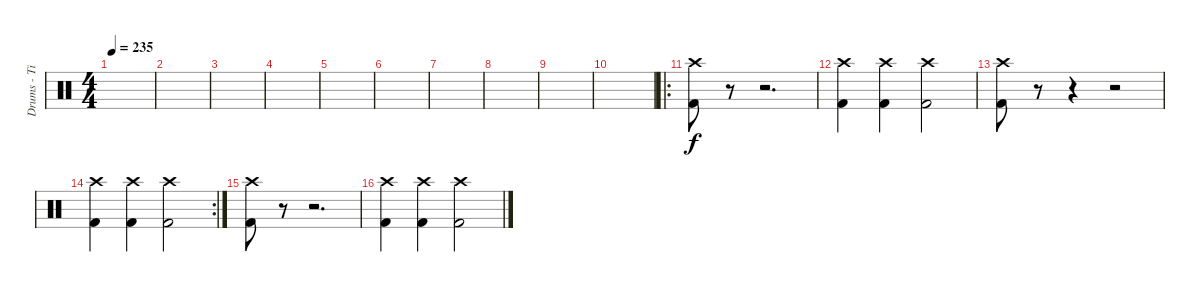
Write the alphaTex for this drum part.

\track ("Drums - Tim \"Herb\" Alexander" "Drums - Ti") {instrument percussion}
\staff {score}
\articulation defaults
\ts (4 4)
\tempo 235
\clef neutral
\ks c
|
|
|
|
|
|
|
|
|
|
\ro
("Crash high (hit)" "Kick (hit) 2").8 r.8 r.2{d} |
("Crash high (hit)" "Kick (hit) 2").4 ("Crash high (hit)" "Kick (hit) 2").4 ("Crash high (hit)" "Kick (hit) 2").2 |
("Crash high (hit)" "Kick (hit) 2").8 r.8 r.4 r.2 |
\rc 2
("Crash high (hit)" "Kick (hit) 2").4 ("Crash high (hit)" "Kick (hit) 2").4 ("Crash high (hit)" "Kick (hit) 2").2 |
("Crash high (hit)" "Kick (hit) 2").8 r.8 r.2{d} |
("Crash high (hit)" "Kick (hit) 2").4 ("Crash high (hit)" "Kick (hit) 2").4 ("Crash high (hit)" "Kick (hit) 2").2
